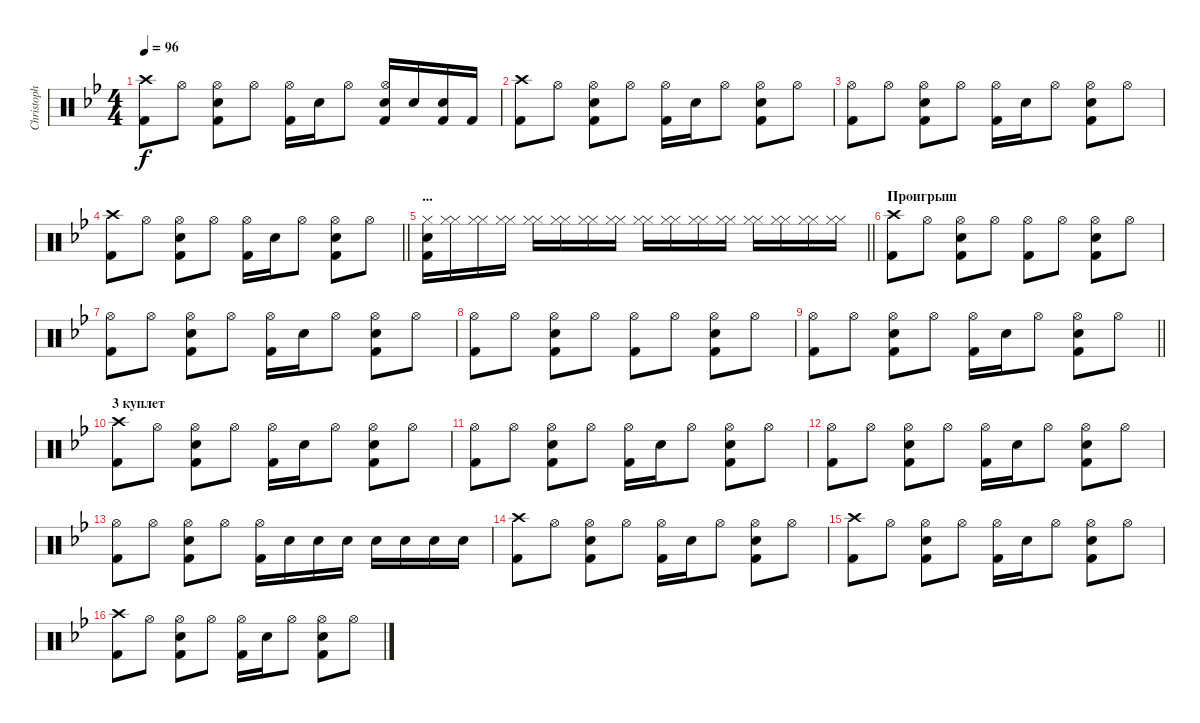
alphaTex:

\track ("Christoph Doom Schneider" "Christoph ") {instrument percussion}
\staff {score}
\articulation defaults
\ts (4 4)
\tempo 96
\clef neutral
\ks bb
("Crash high (hit)" "Kick (hit) 2").8{dy f} "Hi-Hat (open)".8 ("Snare (hit) 2" "Hi-Hat (open)" "Kick (hit) 2").8 "Hi-Hat (open)".8 ("Hi-Hat (open)" "Kick (hit) 2").16 "Snare (hit) 2".16 "Hi-Hat (open)".8 ("Snare (hit) 2" "Hi-Hat (open)" "Kick (hit) 2").16 "Snare (hit) 2".16 ("Snare (hit) 2" "Kick (hit) 2").16 "Kick (hit) 2".16 |
("Crash high (hit)" "Kick (hit) 2").8 "Hi-Hat (open)".8 ("Snare (hit) 2" "Hi-Hat (open)" "Kick (hit) 2").8 "Hi-Hat (open)".8 ("Hi-Hat (open)" "Kick (hit) 2").16 "Snare (hit) 2".16 "Hi-Hat (open)".8 ("Snare (hit) 2" "Hi-Hat (open)" "Kick (hit) 2").8 "Hi-Hat (open)".8 |
("Hi-Hat (open)" "Kick (hit) 2").8 "Hi-Hat (open)".8 ("Snare (hit) 2" "Hi-Hat (open)" "Kick (hit) 2").8 "Hi-Hat (open)".8 ("Hi-Hat (open)" "Kick (hit) 2").16 "Snare (hit) 2".16 "Hi-Hat (open)".8 ("Snare (hit) 2" "Hi-Hat (open)" "Kick (hit) 2").8 "Hi-Hat (open)".8 |
\barLineRight lightlight
("Crash high (hit)" "Kick (hit) 2").8 "Hi-Hat (open)".8 ("Snare (hit) 2" "Hi-Hat (open)" "Kick (hit) 2").8 "Hi-Hat (open)".8 ("Hi-Hat (open)" "Kick (hit) 2").16 "Snare (hit) 2".16 "Hi-Hat (open)".8 ("Snare (hit) 2" "Hi-Hat (open)" "Kick (hit) 2").8 "Hi-Hat (open)".8 |
\section ("" "...")
\barLineRight lightlight
("Snare (hit) 2" "Kick (hit) 2" "Hi-Hat (closed)").16 ("Hi-Hat (closed)" "Hi-Hat (closed)").16{volume 8 balance 0} ("Hi-Hat (closed)" "Hi-Hat (closed)").16{volume 16 balance 8} ("Hi-Hat (closed)" "Hi-Hat (closed)").16 ("Hi-Hat (closed)" "Hi-Hat (closed)").16 ("Hi-Hat (closed)" "Hi-Hat (closed)").16 ("Hi-Hat (closed)" "Hi-Hat (closed)").16 ("Hi-Hat (closed)" "Hi-Hat (closed)").16 ("Hi-Hat (closed)" "Hi-Hat (closed)").16 ("Hi-Hat (closed)" "Hi-Hat (closed)").16 ("Hi-Hat (closed)" "Hi-Hat (closed)").16 ("Hi-Hat (closed)" "Hi-Hat (closed)").16{volume 12 balance 16} ("Hi-Hat (closed)" "Hi-Hat (closed)").16 ("Hi-Hat (closed)" "Hi-Hat (closed)").16 ("Hi-Hat (closed)" "Hi-Hat (closed)").16 ("Hi-Hat (closed)" "Hi-Hat (closed)").16 |
\section ("" "Проигрыш")
("Crash high (hit)" "Kick (hit) 2").8{volume 16 balance 8} "Hi-Hat (open)".8 ("Snare (hit) 2" "Hi-Hat (open)" "Kick (hit) 2").8 "Hi-Hat (open)".8 ("Hi-Hat (open)" "Kick (hit) 2").8 "Hi-Hat (open)".8 ("Snare (hit) 2" "Hi-Hat (open)" "Kick (hit) 2").8 "Hi-Hat (open)".8 |
("Hi-Hat (open)" "Kick (hit) 2").8 "Hi-Hat (open)".8 ("Snare (hit) 2" "Hi-Hat (open)" "Kick (hit) 2").8 "Hi-Hat (open)".8 ("Hi-Hat (open)" "Kick (hit) 2").16 "Snare (hit) 2".16 "Hi-Hat (open)".8 ("Snare (hit) 2" "Hi-Hat (open)" "Kick (hit) 2").8 "Hi-Hat (open)".8 |
("Hi-Hat (open)" "Kick (hit) 2").8 "Hi-Hat (open)".8 ("Snare (hit) 2" "Hi-Hat (open)" "Kick (hit) 2").8 "Hi-Hat (open)".8 ("Hi-Hat (open)" "Kick (hit) 2").8 "Hi-Hat (open)".8 ("Snare (hit) 2" "Hi-Hat (open)" "Kick (hit) 2").8 "Hi-Hat (open)".8 |
\barLineRight lightlight
("Hi-Hat (open)" "Kick (hit) 2").8 "Hi-Hat (open)".8 ("Snare (hit) 2" "Hi-Hat (open)" "Kick (hit) 2").8 "Hi-Hat (open)".8 ("Hi-Hat (open)" "Kick (hit) 2").16 "Snare (hit) 2".16 "Hi-Hat (open)".8 ("Snare (hit) 2" "Hi-Hat (open)" "Kick (hit) 2").8 "Hi-Hat (open)".8 |
\section ("" "3 куплет")
("Crash high (hit)" "Kick (hit) 2").8 "Hi-Hat (open)".8 ("Snare (hit) 2" "Hi-Hat (open)" "Kick (hit) 2").8 "Hi-Hat (open)".8 ("Hi-Hat (open)" "Kick (hit) 2").16 "Snare (hit) 2".16 "Hi-Hat (open)".8 ("Snare (hit) 2" "Hi-Hat (open)" "Kick (hit) 2").8 "Hi-Hat (open)".8 |
("Hi-Hat (open)" "Kick (hit) 2").8 "Hi-Hat (open)".8 ("Snare (hit) 2" "Hi-Hat (open)" "Kick (hit) 2").8 "Hi-Hat (open)".8 ("Hi-Hat (open)" "Kick (hit) 2").16 "Snare (hit) 2".16 "Hi-Hat (open)".8 ("Snare (hit) 2" "Hi-Hat (open)" "Kick (hit) 2").8 "Hi-Hat (open)".8 |
("Hi-Hat (open)" "Kick (hit) 2").8 "Hi-Hat (open)".8 ("Snare (hit) 2" "Hi-Hat (open)" "Kick (hit) 2").8 "Hi-Hat (open)".8 ("Hi-Hat (open)" "Kick (hit) 2").16 "Snare (hit) 2".16 "Hi-Hat (open)".8 ("Snare (hit) 2" "Hi-Hat (open)" "Kick (hit) 2").8 "Hi-Hat (open)".8 |
("Hi-Hat (open)" "Kick (hit) 2").8 "Hi-Hat (open)".8 ("Snare (hit) 2" "Hi-Hat (open)" "Kick (hit) 2").8 "Hi-Hat (open)".8 ("Hi-Hat (open)" "Kick (hit) 2").16 "Snare (hit) 2".16 "Snare (hit) 2".16 "Snare (hit) 2".16 "Snare (hit) 2".16 "Snare (hit) 2".16 "Snare (hit) 2".16 "Snare (hit) 2".16 |
("Crash high (hit)" "Kick (hit) 2").8 "Hi-Hat (open)".8 ("Snare (hit) 2" "Hi-Hat (open)" "Kick (hit) 2").8 "Hi-Hat (open)".8 ("Hi-Hat (open)" "Kick (hit) 2").16 "Snare (hit) 2".16 "Hi-Hat (open)".8 ("Snare (hit) 2" "Hi-Hat (open)" "Kick (hit) 2").8 "Hi-Hat (open)".8 |
("Crash high (hit)" "Kick (hit) 2").8 "Hi-Hat (open)".8 ("Snare (hit) 2" "Hi-Hat (open)" "Kick (hit) 2").8 "Hi-Hat (open)".8 ("Hi-Hat (open)" "Kick (hit) 2").16 "Snare (hit) 2".16 "Hi-Hat (open)".8 ("Snare (hit) 2" "Hi-Hat (open)" "Kick (hit) 2").8 "Hi-Hat (open)".8 |
("Crash high (hit)" "Kick (hit) 2").8 "Hi-Hat (open)".8 ("Snare (hit) 2" "Hi-Hat (open)" "Kick (hit) 2").8 "Hi-Hat (open)".8 ("Hi-Hat (open)" "Kick (hit) 2").16 "Snare (hit) 2".16 "Hi-Hat (open)".8 ("Snare (hit) 2" "Hi-Hat (open)" "Kick (hit) 2").8 "Hi-Hat (open)".8
